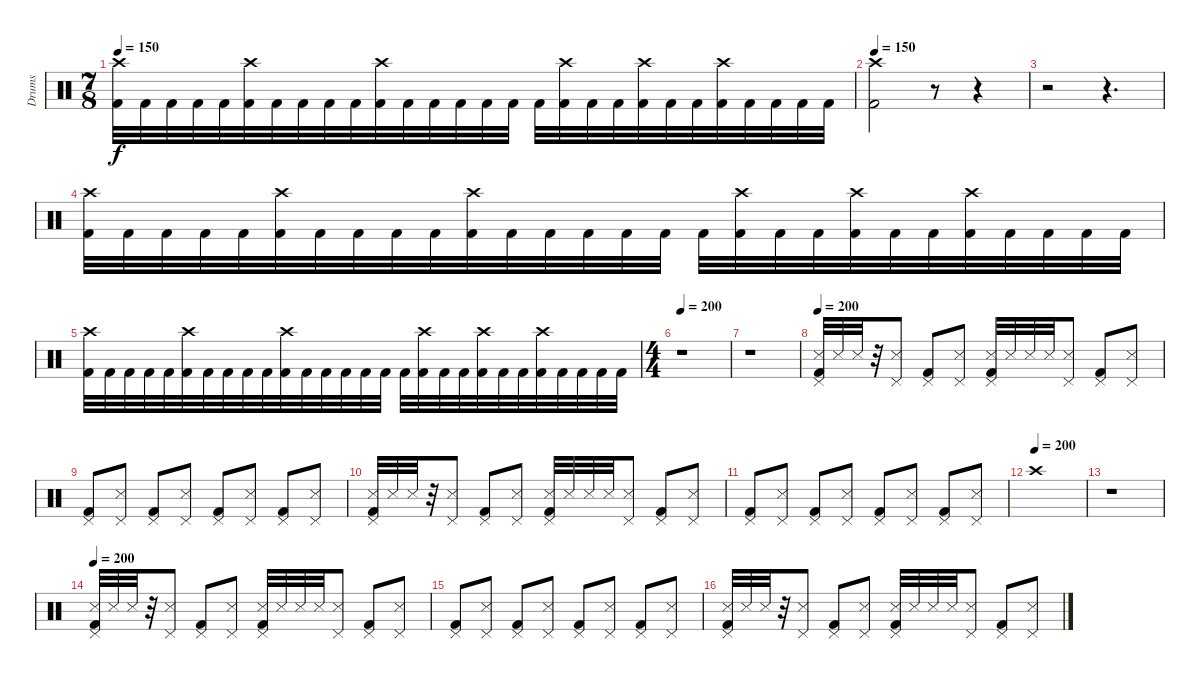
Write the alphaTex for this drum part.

\track ("Drums" "Drums") {instrument percussion}
\staff {score}
\articulation defaults
\ts (7 8)
\tempo 150
\clef neutral
\ks c
("Crash high (hit)" "Kick (hit) 2").32{dy f} "Kick (hit) 2".32 "Kick (hit) 2".32 "Kick (hit) 2".32 "Kick (hit) 2".32 ("Crash high (hit)" "Kick (hit) 2").32 "Kick (hit) 2".32 "Kick (hit) 2".32 "Kick (hit) 2".32 "Kick (hit) 2".32 ("Crash high (hit)" "Kick (hit) 2").32 "Kick (hit) 2".32 "Kick (hit) 2".32 "Kick (hit) 2".32 "Kick (hit) 2".32 "Kick (hit) 2".32 "Kick (hit) 2".32 ("Crash high (hit)" "Kick (hit) 2").32 "Kick (hit) 2".32 "Kick (hit) 2".32 ("Crash high (hit)" "Kick (hit) 2").32 "Kick (hit) 2".32 "Kick (hit) 2".32 ("Crash high (hit)" "Kick (hit) 2").32 "Kick (hit) 2".32 "Kick (hit) 2".32 "Kick (hit) 2".32 "Kick (hit) 2".32 |
\tempo 150
("Crash high (hit)" "Kick (hit) 2").2 r.8 r.4 |
r.2 r.4{d} |
("Crash high (hit)" "Kick (hit) 2").32 "Kick (hit) 2".32 "Kick (hit) 2".32 "Kick (hit) 2".32 "Kick (hit) 2".32 ("Crash high (hit)" "Kick (hit) 2").32 "Kick (hit) 2".32 "Kick (hit) 2".32 "Kick (hit) 2".32 "Kick (hit) 2".32 ("Crash high (hit)" "Kick (hit) 2").32 "Kick (hit) 2".32 "Kick (hit) 2".32 "Kick (hit) 2".32 "Kick (hit) 2".32 "Kick (hit) 2".32 "Kick (hit) 2".32 ("Crash high (hit)" "Kick (hit) 2").32 "Kick (hit) 2".32 "Kick (hit) 2".32 ("Crash high (hit)" "Kick (hit) 2").32 "Kick (hit) 2".32 "Kick (hit) 2".32 ("Crash high (hit)" "Kick (hit) 2").32 "Kick (hit) 2".32 "Kick (hit) 2".32 "Kick (hit) 2".32 "Kick (hit) 2".32 |
("Crash high (hit)" "Kick (hit) 2").32 "Kick (hit) 2".32 "Kick (hit) 2".32 "Kick (hit) 2".32 "Kick (hit) 2".32 ("Crash high (hit)" "Kick (hit) 2").32 "Kick (hit) 2".32 "Kick (hit) 2".32 "Kick (hit) 2".32 "Kick (hit) 2".32 ("Crash high (hit)" "Kick (hit) 2").32 "Kick (hit) 2".32 "Kick (hit) 2".32 "Kick (hit) 2".32 "Kick (hit) 2".32 "Kick (hit) 2".32 "Kick (hit) 2".32 ("Crash high (hit)" "Kick (hit) 2").32 "Kick (hit) 2".32 "Kick (hit) 2".32 ("Crash high (hit)" "Kick (hit) 2").32 "Kick (hit) 2".32 "Kick (hit) 2".32 ("Crash high (hit)" "Kick (hit) 2").32 "Kick (hit) 2".32 "Kick (hit) 2".32 "Kick (hit) 2".32 "Kick (hit) 2".32 |
\ts (4 4)
\tempo 200
r.1 |
r.1 |
\tempo 200
("Pedal Hi-Hat (hit)" "Metronome (hit)" "Kick (hit) 2").32 "Metronome (hit)".32 "Metronome (hit)".32 r.32 ("Pedal Hi-Hat (hit)" "Metronome (hit)").8 ("Pedal Hi-Hat (hit)" "Kick (hit) 2").8 ("Pedal Hi-Hat (hit)" "Metronome (hit)").8 ("Metronome (hit)" "Pedal Hi-Hat (hit)" "Kick (hit) 2").32 "Metronome (hit)".32 "Metronome (hit)".32 "Metronome (hit)".32 ("Pedal Hi-Hat (hit)" "Metronome (hit)").8 ("Pedal Hi-Hat (hit)" "Kick (hit) 2").8 ("Pedal Hi-Hat (hit)" "Metronome (hit)").8 |
("Pedal Hi-Hat (hit)" "Kick (hit) 2").8 ("Pedal Hi-Hat (hit)" "Metronome (hit)").8 ("Pedal Hi-Hat (hit)" "Kick (hit) 2").8 ("Pedal Hi-Hat (hit)" "Metronome (hit)").8 ("Pedal Hi-Hat (hit)" "Kick (hit) 2").8 ("Pedal Hi-Hat (hit)" "Metronome (hit)").8 ("Pedal Hi-Hat (hit)" "Kick (hit) 2").8 ("Pedal Hi-Hat (hit)" "Metronome (hit)").8 |
("Pedal Hi-Hat (hit)" "Metronome (hit)" "Kick (hit) 2").32 "Metronome (hit)".32 "Metronome (hit)".32 r.32 ("Pedal Hi-Hat (hit)" "Metronome (hit)").8 ("Pedal Hi-Hat (hit)" "Kick (hit) 2").8 ("Pedal Hi-Hat (hit)" "Metronome (hit)").8 ("Metronome (hit)" "Pedal Hi-Hat (hit)" "Kick (hit) 2").32 "Metronome (hit)".32 "Metronome (hit)".32 "Metronome (hit)".32 ("Pedal Hi-Hat (hit)" "Metronome (hit)").8 ("Pedal Hi-Hat (hit)" "Kick (hit) 2").8 ("Pedal Hi-Hat (hit)" "Metronome (hit)").8 |
("Pedal Hi-Hat (hit)" "Kick (hit) 2").8 ("Pedal Hi-Hat (hit)" "Metronome (hit)").8 ("Pedal Hi-Hat (hit)" "Kick (hit) 2").8 ("Pedal Hi-Hat (hit)" "Metronome (hit)").8 ("Pedal Hi-Hat (hit)" "Kick (hit) 2").8 ("Pedal Hi-Hat (hit)" "Metronome (hit)").8 ("Pedal Hi-Hat (hit)" "Kick (hit) 2").8 ("Pedal Hi-Hat (hit)" "Metronome (hit)").8 |
\tempo (200)
"Crash high (hit)".1 |
r.1 |
\tempo 200
("Pedal Hi-Hat (hit)" "Metronome (hit)" "Kick (hit) 2").32 "Metronome (hit)".32 "Metronome (hit)".32 r.32 ("Pedal Hi-Hat (hit)" "Metronome (hit)").8 ("Pedal Hi-Hat (hit)" "Kick (hit) 2").8 ("Pedal Hi-Hat (hit)" "Metronome (hit)").8 ("Metronome (hit)" "Pedal Hi-Hat (hit)" "Kick (hit) 2").32 "Metronome (hit)".32 "Metronome (hit)".32 "Metronome (hit)".32 ("Pedal Hi-Hat (hit)" "Metronome (hit)").8 ("Pedal Hi-Hat (hit)" "Kick (hit) 2").8 ("Pedal Hi-Hat (hit)" "Metronome (hit)").8 |
("Pedal Hi-Hat (hit)" "Kick (hit) 2").8 ("Pedal Hi-Hat (hit)" "Metronome (hit)").8 ("Pedal Hi-Hat (hit)" "Kick (hit) 2").8 ("Pedal Hi-Hat (hit)" "Metronome (hit)").8 ("Pedal Hi-Hat (hit)" "Kick (hit) 2").8 ("Pedal Hi-Hat (hit)" "Metronome (hit)").8 ("Pedal Hi-Hat (hit)" "Kick (hit) 2").8 ("Pedal Hi-Hat (hit)" "Metronome (hit)").8 |
("Pedal Hi-Hat (hit)" "Metronome (hit)" "Kick (hit) 2").32 "Metronome (hit)".32 "Metronome (hit)".32 r.32 ("Pedal Hi-Hat (hit)" "Metronome (hit)").8 ("Pedal Hi-Hat (hit)" "Kick (hit) 2").8 ("Pedal Hi-Hat (hit)" "Metronome (hit)").8 ("Metronome (hit)" "Pedal Hi-Hat (hit)" "Kick (hit) 2").32 "Metronome (hit)".32 "Metronome (hit)".32 "Metronome (hit)".32 ("Pedal Hi-Hat (hit)" "Metronome (hit)").8 ("Pedal Hi-Hat (hit)" "Kick (hit) 2").8 ("Pedal Hi-Hat (hit)" "Metronome (hit)").8
